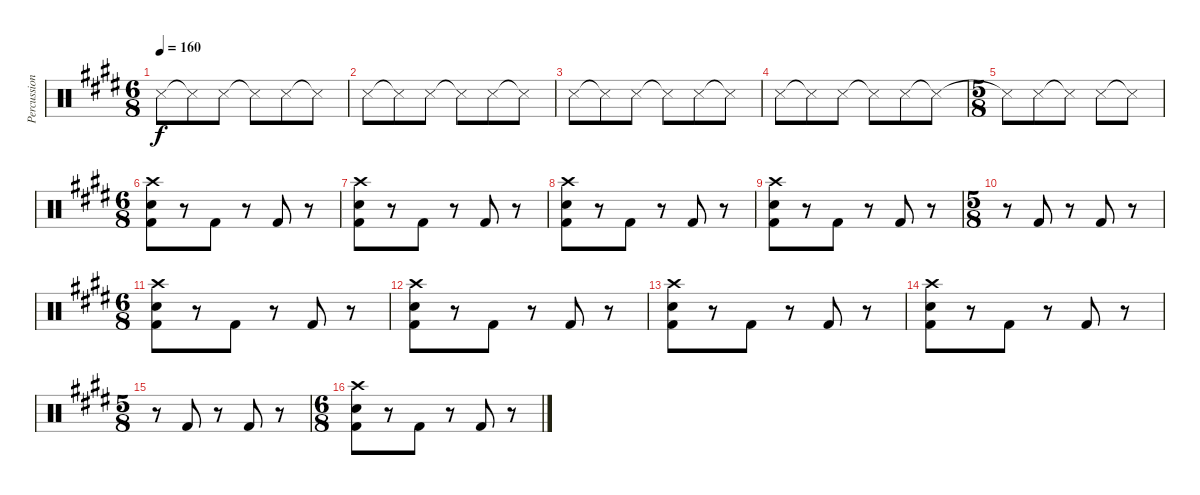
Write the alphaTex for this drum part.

\track ("Percussion" "Percussion") {instrument percussion}
\staff {score}
\articulation defaults
\ts (6 8)
\tempo 160
\clef neutral
\ks c#minor "Snare (side stick) 3".8{dy f volume 13} "Snare (side stick) 3"{t}.8 "Snare (side stick) 3".8 "Snare (side stick) 3"{t}.8 "Snare (side stick) 3".8 "Snare (side stick) 3"{t}.8
|
"Snare (side stick) 3".8{volume 13} "Snare (side stick) 3"{t}.8 "Snare (side stick) 3".8 "Snare (side stick) 3"{t}.8 "Snare (side stick) 3".8 "Snare (side stick) 3"{t}.8 |
"Snare (side stick) 3".8{volume 13} "Snare (side stick) 3"{t}.8 "Snare (side stick) 3".8 "Snare (side stick) 3"{t}.8 "Snare (side stick) 3".8 "Snare (side stick) 3"{t}.8 |
"Snare (side stick) 3".8{volume 13} "Snare (side stick) 3"{t}.8 "Snare (side stick) 3".8 "Snare (side stick) 3"{t}.8 "Snare (side stick) 3".8 "Snare (side stick) 3"{t}.8 |
\ts (5 8)
"Snare (side stick) 3"{t}.8 "Snare (side stick) 3".8 "Snare (side stick) 3"{t}.8 "Snare (side stick) 3".8 "Snare (side stick) 3"{t}.8 |
\ts (6 8)
("Crash high (hit)" "Electric Snare (hit)" "Kick (hit) 2").8{volume 16} r.8 "Kick (hit) 2".8 r.8 "Kick (hit) 2".8 r.8 |
("Crash high (hit)" "Electric Snare (hit)" "Kick (hit) 2").8 r.8 "Kick (hit) 2".8 r.8 "Kick (hit) 2".8 r.8 |
("Crash high (hit)" "Electric Snare (hit)" "Kick (hit) 2").8 r.8 "Kick (hit) 2".8 r.8 "Kick (hit) 2".8 r.8 |
("Crash high (hit)" "Electric Snare (hit)" "Kick (hit) 2").8 r.8 "Kick (hit) 2".8 r.8 "Kick (hit) 2".8 r.8 |
\ts (5 8)
r.8 "Kick (hit) 2".8 r.8 "Kick (hit) 2".8 r.8 |
\ts (6 8)
("Crash high (hit)" "Electric Snare (hit)" "Kick (hit) 2").8 r.8 "Kick (hit) 2".8 r.8 "Kick (hit) 2".8 r.8 |
("Crash high (hit)" "Electric Snare (hit)" "Kick (hit) 2").8 r.8 "Kick (hit) 2".8 r.8 "Kick (hit) 2".8 r.8 |
("Crash high (hit)" "Electric Snare (hit)" "Kick (hit) 2").8 r.8 "Kick (hit) 2".8 r.8 "Kick (hit) 2".8 r.8 |
("Crash high (hit)" "Electric Snare (hit)" "Kick (hit) 2").8 r.8 "Kick (hit) 2".8 r.8 "Kick (hit) 2".8 r.8 |
\ts (5 8)
r.8 "Kick (hit) 2".8 r.8 "Kick (hit) 2".8 r.8 |
\ts (6 8)
("Crash high (hit)" "Electric Snare (hit)" "Kick (hit) 2").8 r.8 "Kick (hit) 2".8 r.8 "Kick (hit) 2".8 r.8
